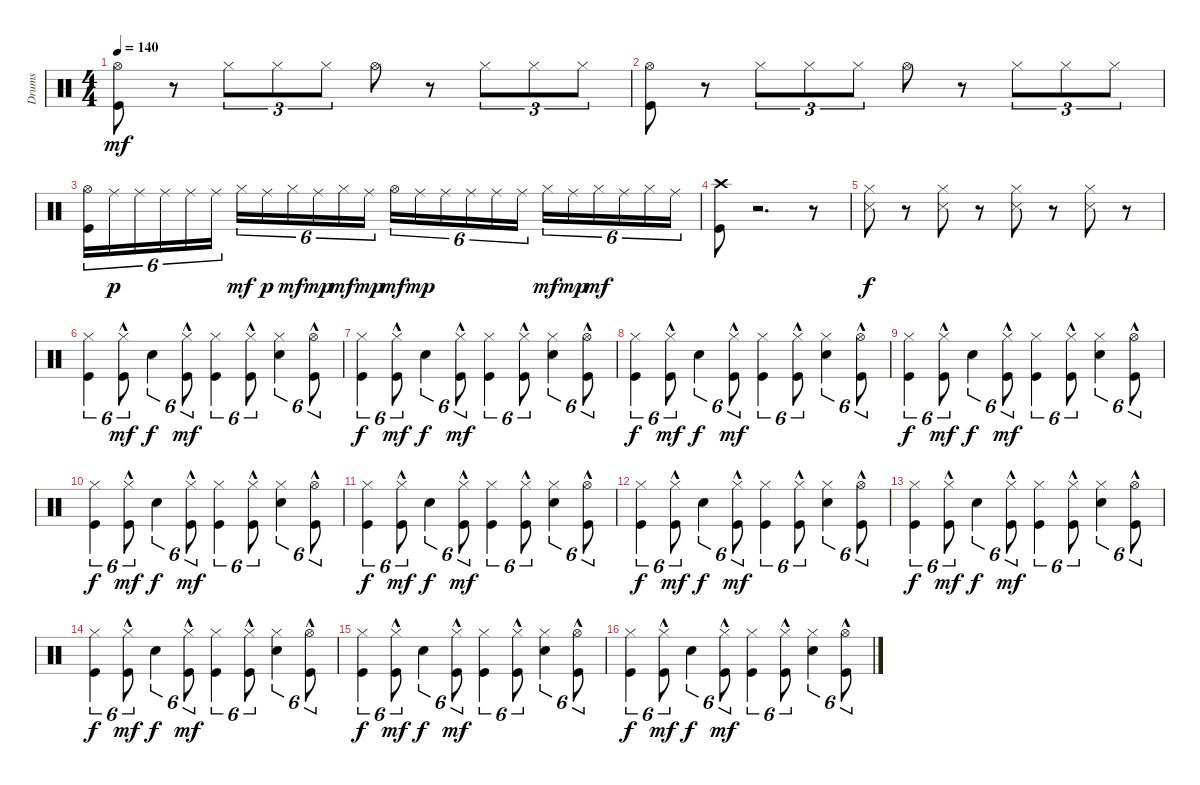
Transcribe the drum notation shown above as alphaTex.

\track ("Drums" "Drums") {instrument percussion}
\staff {score}
\articulation defaults
\ts (4 4)
\tempo 140
\clef neutral
\ks c
("Kick (hit)" "Hi-Hat (open)").8{dy mf} r.8 "Hi-Hat (closed)".8{tu (3 2)} "Hi-Hat (closed)".8{tu (3 2)} "Hi-Hat (closed)".8{tu (3 2)} "Hi-Hat (open)".8 r.8 "Hi-Hat (closed)".8{tu (3 2)} "Hi-Hat (closed)".8{tu (3 2)} "Hi-Hat (closed)".8{tu (3 2)} |
("Kick (hit)" "Hi-Hat (open)").8 r.8 "Hi-Hat (closed)".8{tu (3 2)} "Hi-Hat (closed)".8{tu (3 2)} "Hi-Hat (closed)".8{tu (3 2)} "Hi-Hat (open)".8 r.8 "Hi-Hat (closed)".8{tu (3 2)} "Hi-Hat (closed)".8{tu (3 2)} "Hi-Hat (closed)".8{tu (3 2)} |
("Kick (hit)" "Hi-Hat (open)").16{tu (6 4)} "Ride (middle)".16{tu (6 4) dy p} "Ride (middle)".16{tu (6 4)} "Ride (middle)".16{tu (6 4)} "Ride (middle)".16{tu (6 4)} "Ride (middle)".16{tu (6 4)} "Hi-Hat (closed)".16{tu (6 4) dy mf} "Ride (middle)".16{tu (6 4) dy p} "Hi-Hat (closed)".16{tu (6 4) dy mf} "Ride (middle)".16{tu (6 4) dy mp} "Hi-Hat (closed)".16{tu (6 4) dy mf} "Ride (middle)".16{tu (6 4) dy mp} "Hi-Hat (open)".16{tu (6 4) dy mf} "Ride (middle)".16{tu (6 4) dy mp} "Ride (middle)".16{tu (6 4)} "Ride (middle)".16{tu (6 4)} "Ride (middle)".16{tu (6 4)} "Ride (middle)".16{tu (6 4)} "Hi-Hat (closed)".16{tu (6 4) dy mf} "Ride (middle)".16{tu (6 4) dy mp} "Hi-Hat (closed)".16{tu (6 4) dy mf} "Ride (middle)".16{tu (6 4)} "Hi-Hat (closed)".16{tu (6 4)} "Ride (middle)".16{tu (6 4)} |
("Kick (hit)" "Crash high (hit)").8 r.2{d} r.8 |
("Snare (side stick) 3" "Hi-Hat (closed)").8{dy f} r.8 ("Snare (side stick) 3" "Hi-Hat (closed)").8 r.8 ("Snare (side stick) 3" "Hi-Hat (closed)").8 r.8 ("Snare (side stick) 3" "Hi-Hat (closed)").8 r.8 |
("Kick (hit)" "Hi-Hat (closed)").4{tu (6 4)} ("Kick (hit)"{hac} "Hi-Hat (closed)"{hac}).8{tu (6 4) dy mf} "Electric Snare (hit)".4{tu (6 4) dy f} ("Kick (hit)"{hac} "Hi-Hat (closed)"{hac}).8{tu (6 4) dy mf} ("Kick (hit)" "Hi-Hat (closed)").4{tu (6 4)} ("Kick (hit)"{hac} "Hi-Hat (closed)"{hac}).8{tu (6 4)} ("Electric Snare (hit)" "Hi-Hat (closed)").4{tu (6 4)} ("Kick (hit)"{hac} "Hi-Hat (open)"{hac}).8{tu (6 4)} |
("Kick (hit)" "Hi-Hat (closed)").4{tu (6 4) dy f} ("Kick (hit)"{hac} "Hi-Hat (closed)"{hac}).8{tu (6 4) dy mf} "Electric Snare (hit)".4{tu (6 4) dy f} ("Kick (hit)"{hac} "Hi-Hat (closed)"{hac}).8{tu (6 4) dy mf} ("Kick (hit)" "Hi-Hat (closed)").4{tu (6 4)} ("Kick (hit)"{hac} "Hi-Hat (closed)"{hac}).8{tu (6 4)} ("Electric Snare (hit)" "Hi-Hat (closed)").4{tu (6 4)} ("Kick (hit)"{hac} "Hi-Hat (open)"{hac}).8{tu (6 4)} |
("Kick (hit)" "Hi-Hat (closed)").4{tu (6 4) dy f} ("Kick (hit)"{hac} "Hi-Hat (closed)"{hac}).8{tu (6 4) dy mf} "Electric Snare (hit)".4{tu (6 4) dy f} ("Kick (hit)"{hac} "Hi-Hat (closed)"{hac}).8{tu (6 4) dy mf} ("Kick (hit)" "Hi-Hat (closed)").4{tu (6 4)} ("Kick (hit)"{hac} "Hi-Hat (closed)"{hac}).8{tu (6 4)} ("Electric Snare (hit)" "Hi-Hat (closed)").4{tu (6 4)} ("Kick (hit)"{hac} "Hi-Hat (open)"{hac}).8{tu (6 4)} |
("Kick (hit)" "Hi-Hat (closed)").4{tu (6 4) dy f} ("Kick (hit)"{hac} "Hi-Hat (closed)"{hac}).8{tu (6 4) dy mf} "Electric Snare (hit)".4{tu (6 4) dy f} ("Kick (hit)"{hac} "Hi-Hat (closed)"{hac}).8{tu (6 4) dy mf} ("Kick (hit)" "Hi-Hat (closed)").4{tu (6 4)} ("Kick (hit)"{hac} "Hi-Hat (closed)"{hac}).8{tu (6 4)} ("Electric Snare (hit)" "Hi-Hat (closed)").4{tu (6 4)} ("Kick (hit)"{hac} "Hi-Hat (open)"{hac}).8{tu (6 4)} |
("Kick (hit)" "Hi-Hat (closed)").4{tu (6 4) dy f} ("Kick (hit)"{hac} "Hi-Hat (closed)"{hac}).8{tu (6 4) dy mf} "Electric Snare (hit)".4{tu (6 4) dy f} ("Kick (hit)"{hac} "Hi-Hat (closed)"{hac}).8{tu (6 4) dy mf} ("Kick (hit)" "Hi-Hat (closed)").4{tu (6 4)} ("Kick (hit)"{hac} "Hi-Hat (closed)"{hac}).8{tu (6 4)} ("Electric Snare (hit)" "Hi-Hat (closed)").4{tu (6 4)} ("Kick (hit)"{hac} "Hi-Hat (open)"{hac}).8{tu (6 4)} |
("Kick (hit)" "Hi-Hat (closed)").4{tu (6 4) dy f} ("Kick (hit)"{hac} "Hi-Hat (closed)"{hac}).8{tu (6 4) dy mf} "Electric Snare (hit)".4{tu (6 4) dy f} ("Kick (hit)"{hac} "Hi-Hat (closed)"{hac}).8{tu (6 4) dy mf} ("Kick (hit)" "Hi-Hat (closed)").4{tu (6 4)} ("Kick (hit)"{hac} "Hi-Hat (closed)"{hac}).8{tu (6 4)} ("Electric Snare (hit)" "Hi-Hat (closed)").4{tu (6 4)} ("Kick (hit)"{hac} "Hi-Hat (open)"{hac}).8{tu (6 4)} |
("Kick (hit)" "Hi-Hat (closed)").4{tu (6 4) dy f} ("Kick (hit)"{hac} "Hi-Hat (closed)"{hac}).8{tu (6 4) dy mf} "Electric Snare (hit)".4{tu (6 4) dy f} ("Kick (hit)"{hac} "Hi-Hat (closed)"{hac}).8{tu (6 4) dy mf} ("Kick (hit)" "Hi-Hat (closed)").4{tu (6 4)} ("Kick (hit)"{hac} "Hi-Hat (closed)"{hac}).8{tu (6 4)} ("Electric Snare (hit)" "Hi-Hat (closed)").4{tu (6 4)} ("Kick (hit)"{hac} "Hi-Hat (open)"{hac}).8{tu (6 4)} |
("Kick (hit)" "Hi-Hat (closed)").4{tu (6 4) dy f} ("Kick (hit)"{hac} "Hi-Hat (closed)"{hac}).8{tu (6 4) dy mf} "Electric Snare (hit)".4{tu (6 4) dy f} ("Kick (hit)"{hac} "Hi-Hat (closed)"{hac}).8{tu (6 4) dy mf} ("Kick (hit)" "Hi-Hat (closed)").4{tu (6 4)} ("Kick (hit)"{hac} "Hi-Hat (closed)"{hac}).8{tu (6 4)} ("Electric Snare (hit)" "Hi-Hat (closed)").4{tu (6 4)} ("Kick (hit)"{hac} "Hi-Hat (open)"{hac}).8{tu (6 4)} |
("Kick (hit)" "Hi-Hat (closed)").4{tu (6 4) dy f} ("Kick (hit)"{hac} "Hi-Hat (closed)"{hac}).8{tu (6 4) dy mf} "Electric Snare (hit)".4{tu (6 4) dy f} ("Kick (hit)"{hac} "Hi-Hat (closed)"{hac}).8{tu (6 4) dy mf} ("Kick (hit)" "Hi-Hat (closed)").4{tu (6 4)} ("Kick (hit)"{hac} "Hi-Hat (closed)"{hac}).8{tu (6 4)} ("Electric Snare (hit)" "Hi-Hat (closed)").4{tu (6 4)} ("Kick (hit)"{hac} "Hi-Hat (open)"{hac}).8{tu (6 4)} |
("Kick (hit)" "Hi-Hat (closed)").4{tu (6 4) dy f} ("Kick (hit)"{hac} "Hi-Hat (closed)"{hac}).8{tu (6 4) dy mf} "Electric Snare (hit)".4{tu (6 4) dy f} ("Kick (hit)"{hac} "Hi-Hat (closed)"{hac}).8{tu (6 4) dy mf} ("Kick (hit)" "Hi-Hat (closed)").4{tu (6 4)} ("Kick (hit)"{hac} "Hi-Hat (closed)"{hac}).8{tu (6 4)} ("Electric Snare (hit)" "Hi-Hat (closed)").4{tu (6 4)} ("Kick (hit)"{hac} "Hi-Hat (open)"{hac}).8{tu (6 4)} |
("Kick (hit)" "Hi-Hat (closed)").4{tu (6 4) dy f} ("Kick (hit)"{hac} "Hi-Hat (closed)"{hac}).8{tu (6 4) dy mf} "Electric Snare (hit)".4{tu (6 4) dy f} ("Kick (hit)"{hac} "Hi-Hat (closed)"{hac}).8{tu (6 4) dy mf} ("Kick (hit)" "Hi-Hat (closed)").4{tu (6 4)} ("Kick (hit)"{hac} "Hi-Hat (closed)"{hac}).8{tu (6 4)} ("Electric Snare (hit)" "Hi-Hat (closed)").4{tu (6 4)} ("Kick (hit)"{hac} "Hi-Hat (open)"{hac}).8{tu (6 4)}
